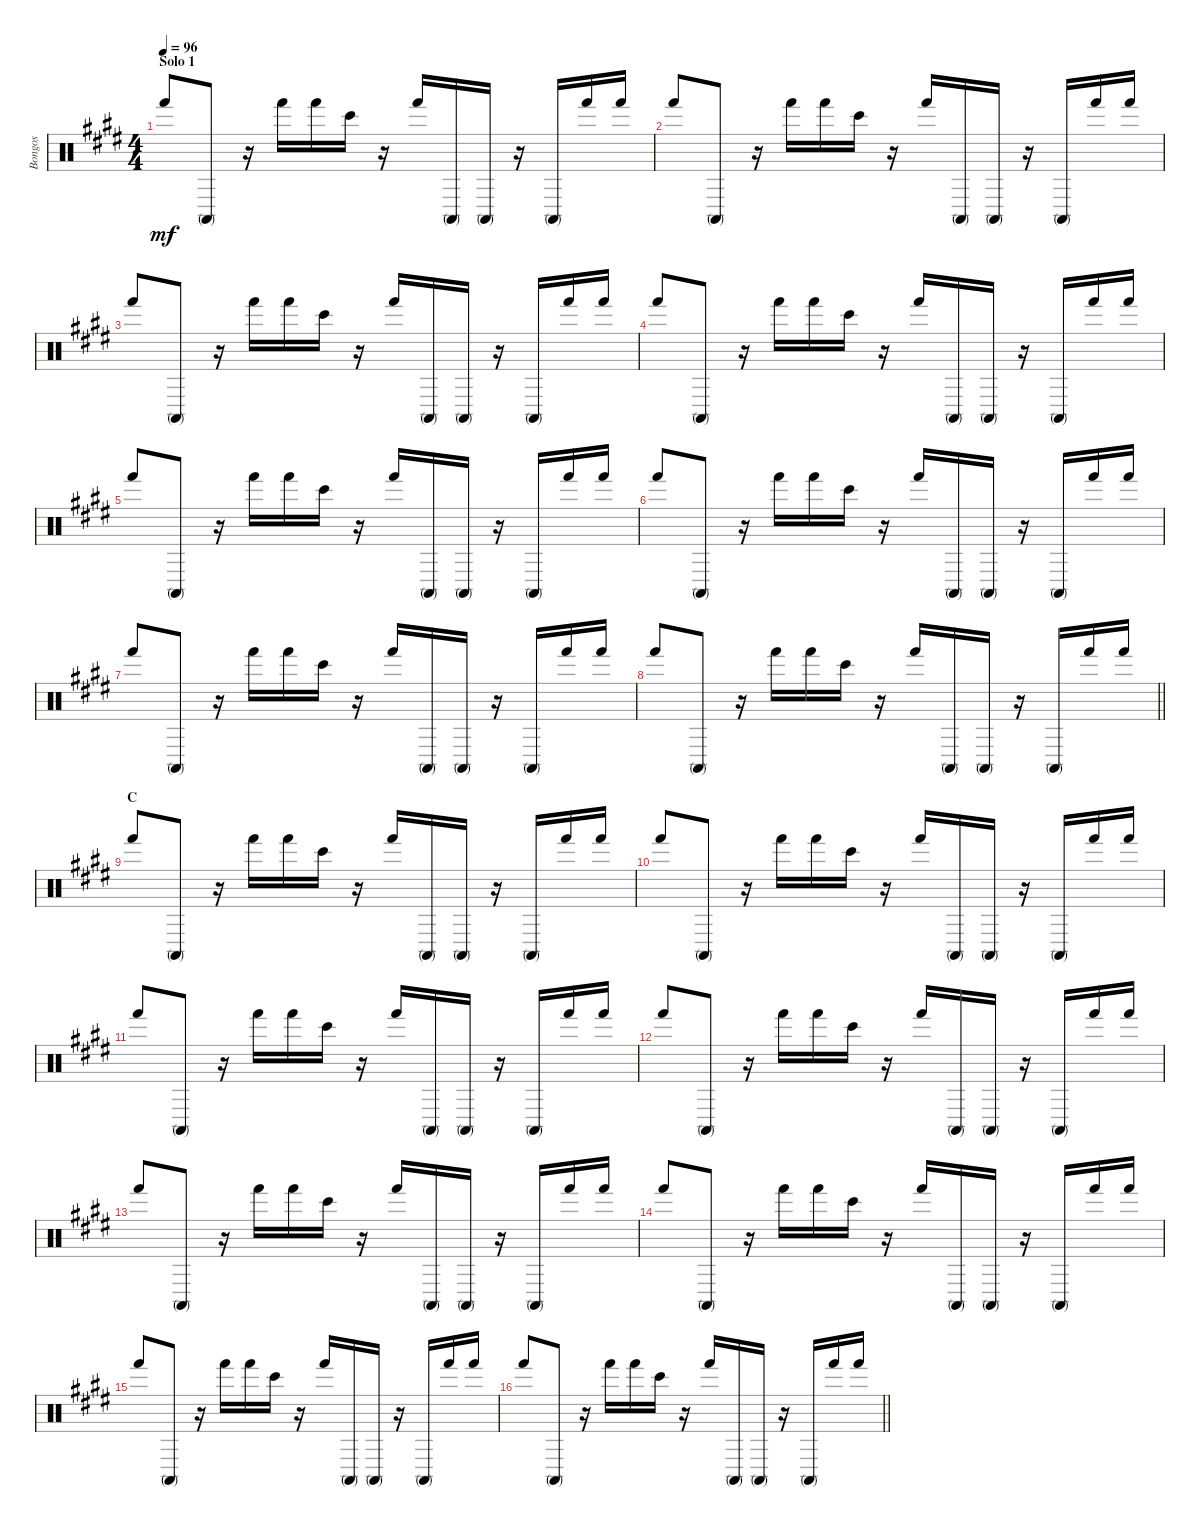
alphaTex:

\track ("Bongos" "Bongos") {instrument percussion}
\staff {score}
\articulation defaults
\ts (4 4)
\section ("" "Solo 1")
\tempo 96
\clef neutral
\ks e "Hand (hit)".8{dy mf} "Conga high (mute)".8
r.16 "Hand (hit)".16 "Hand (hit)".16 "Bongo High (hit)".16 r.16 "Hand (hit)".16 "Conga high (mute)".16 "Conga high (mute)".16 r.16 "Conga high (mute)".16 "Hand (hit)".16 "Hand (hit)".16 |
"Hand (hit)".8 "Conga high (mute)".8 r.16 "Hand (hit)".16 "Hand (hit)".16 "Bongo High (hit)".16 r.16 "Hand (hit)".16 "Conga high (mute)".16 "Conga high (mute)".16 r.16 "Conga high (mute)".16 "Hand (hit)".16 "Hand (hit)".16 |
"Hand (hit)".8 "Conga high (mute)".8 r.16 "Hand (hit)".16 "Hand (hit)".16 "Bongo High (hit)".16 r.16 "Hand (hit)".16 "Conga high (mute)".16 "Conga high (mute)".16 r.16 "Conga high (mute)".16 "Hand (hit)".16 "Hand (hit)".16 |
"Hand (hit)".8 "Conga high (mute)".8 r.16 "Hand (hit)".16 "Hand (hit)".16 "Bongo High (hit)".16 r.16 "Hand (hit)".16 "Conga high (mute)".16 "Conga high (mute)".16 r.16 "Conga high (mute)".16 "Hand (hit)".16 "Hand (hit)".16 |
"Hand (hit)".8 "Conga high (mute)".8 r.16 "Hand (hit)".16 "Hand (hit)".16 "Bongo High (hit)".16 r.16 "Hand (hit)".16 "Conga high (mute)".16 "Conga high (mute)".16 r.16 "Conga high (mute)".16 "Hand (hit)".16 "Hand (hit)".16 |
"Hand (hit)".8 "Conga high (mute)".8 r.16 "Hand (hit)".16 "Hand (hit)".16 "Bongo High (hit)".16 r.16 "Hand (hit)".16 "Conga high (mute)".16 "Conga high (mute)".16 r.16 "Conga high (mute)".16 "Hand (hit)".16 "Hand (hit)".16 |
"Hand (hit)".8 "Conga high (mute)".8 r.16 "Hand (hit)".16 "Hand (hit)".16 "Bongo High (hit)".16 r.16 "Hand (hit)".16 "Conga high (mute)".16 "Conga high (mute)".16 r.16 "Conga high (mute)".16 "Hand (hit)".16 "Hand (hit)".16 |
\barLineRight lightlight "Hand (hit)".8 "Conga high (mute)".8
r.16 "Hand (hit)".16 "Hand (hit)".16 "Bongo High (hit)".16 r.16 "Hand (hit)".16 "Conga high (mute)".16 "Conga high (mute)".16 r.16 "Conga high (mute)".16 "Hand (hit)".16 "Hand (hit)".16 |
\section ("" "C")
"Hand (hit)".8 "Conga high (mute)".8 r.16 "Hand (hit)".16 "Hand (hit)".16 "Bongo High (hit)".16 r.16 "Hand (hit)".16 "Conga high (mute)".16 "Conga high (mute)".16 r.16 "Conga high (mute)".16 "Hand (hit)".16 "Hand (hit)".16 |
"Hand (hit)".8 "Conga high (mute)".8 r.16 "Hand (hit)".16 "Hand (hit)".16 "Bongo High (hit)".16 r.16 "Hand (hit)".16 "Conga high (mute)".16 "Conga high (mute)".16 r.16 "Conga high (mute)".16 "Hand (hit)".16 "Hand (hit)".16 |
"Hand (hit)".8 "Conga high (mute)".8 r.16 "Hand (hit)".16 "Hand (hit)".16 "Bongo High (hit)".16 r.16 "Hand (hit)".16 "Conga high (mute)".16 "Conga high (mute)".16 r.16 "Conga high (mute)".16 "Hand (hit)".16 "Hand (hit)".16 |
"Hand (hit)".8 "Conga high (mute)".8 r.16 "Hand (hit)".16 "Hand (hit)".16 "Bongo High (hit)".16 r.16 "Hand (hit)".16 "Conga high (mute)".16 "Conga high (mute)".16 r.16 "Conga high (mute)".16 "Hand (hit)".16 "Hand (hit)".16 |
"Hand (hit)".8 "Conga high (mute)".8 r.16 "Hand (hit)".16 "Hand (hit)".16 "Bongo High (hit)".16 r.16 "Hand (hit)".16 "Conga high (mute)".16 "Conga high (mute)".16 r.16 "Conga high (mute)".16 "Hand (hit)".16 "Hand (hit)".16 |
"Hand (hit)".8 "Conga high (mute)".8 r.16 "Hand (hit)".16 "Hand (hit)".16 "Bongo High (hit)".16 r.16 "Hand (hit)".16 "Conga high (mute)".16 "Conga high (mute)".16 r.16 "Conga high (mute)".16 "Hand (hit)".16 "Hand (hit)".16 |
"Hand (hit)".8 "Conga high (mute)".8 r.16 "Hand (hit)".16 "Hand (hit)".16 "Bongo High (hit)".16 r.16 "Hand (hit)".16 "Conga high (mute)".16 "Conga high (mute)".16 r.16 "Conga high (mute)".16 "Hand (hit)".16 "Hand (hit)".16 |
\barLineRight lightlight "Hand (hit)".8 "Conga high (mute)".8
r.16 "Hand (hit)".16 "Hand (hit)".16 "Bongo High (hit)".16 r.16 "Hand (hit)".16 "Conga high (mute)".16 "Conga high (mute)".16 r.16 "Conga high (mute)".16 "Hand (hit)".16 "Hand (hit)".16
